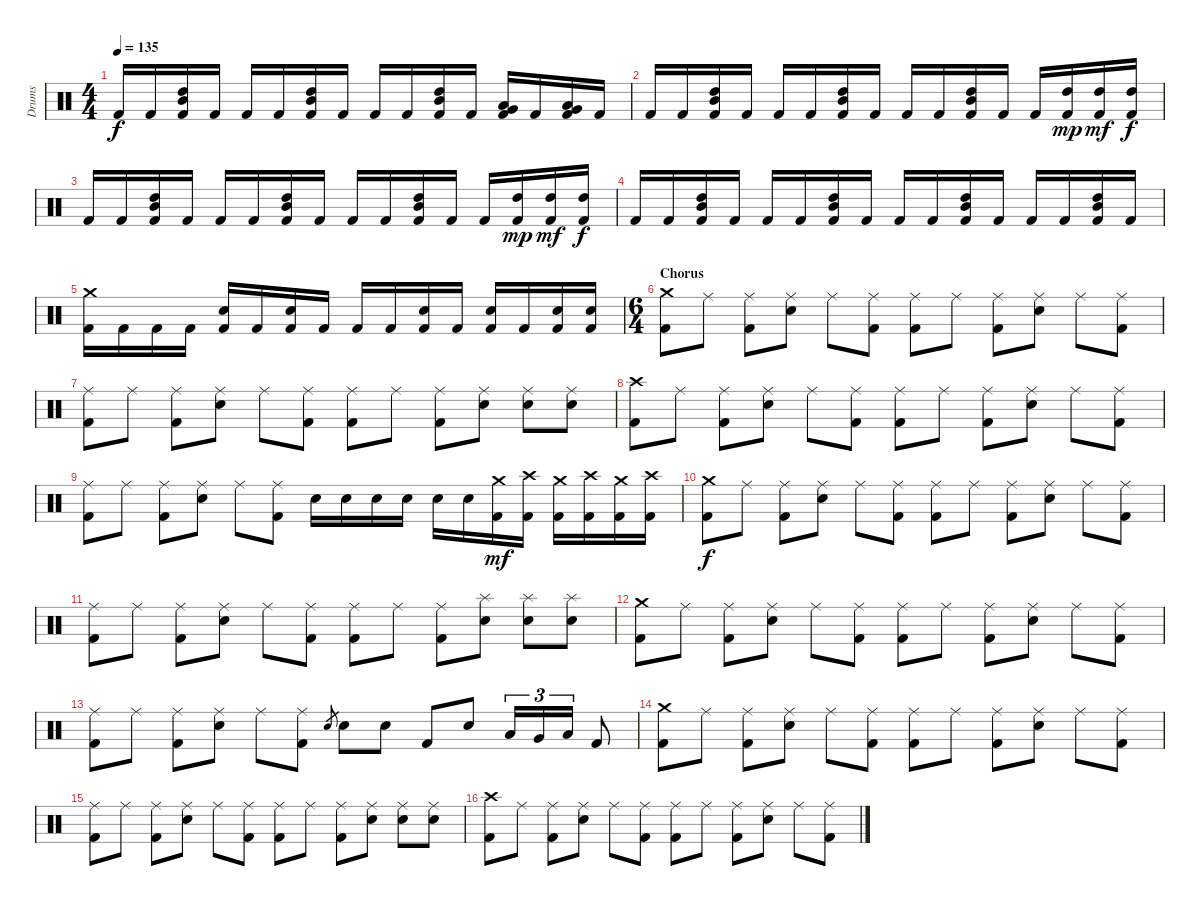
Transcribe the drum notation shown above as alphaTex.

\track ("Drums" "Drums") {instrument percussion}
\staff {score}
\articulation defaults
\ts (4 4)
\tempo 135
\clef neutral
\ks c "Kick (hit) 2".16{dy f} "Kick (hit) 2".16
("High Tom (hit)" "Mid Tom (hit)" "Kick (hit) 2").16 "Kick (hit) 2".16 "Kick (hit) 2".16 "Kick (hit) 2".16 ("High Tom (hit)" "Mid Tom (hit)" "Kick (hit) 2").16 "Kick (hit) 2".16 "Kick (hit) 2".16 "Kick (hit) 2".16 ("High Tom (hit)" "Mid Tom (hit)" "Kick (hit) 2").16 "Kick (hit) 2".16 ("Low Tom (hit)" "Very Low Tom (hit)" "Kick (hit) 2").16 "Kick (hit) 2".16 ("Very Low Tom (hit)" "Low Floor Tom (hit)" "Kick (hit) 2").16 "Kick (hit) 2".16 |
"Kick (hit) 2".16 "Kick (hit) 2".16 ("High Tom (hit)" "Mid Tom (hit)" "Kick (hit) 2").16 "Kick (hit) 2".16 "Kick (hit) 2".16 "Kick (hit) 2".16 ("High Tom (hit)" "Mid Tom (hit)" "Kick (hit) 2").16 "Kick (hit) 2".16 "Kick (hit) 2".16 "Kick (hit) 2".16 ("High Tom (hit)" "Mid Tom (hit)" "Kick (hit) 2").16 "Kick (hit) 2".16 "Kick (hit) 2".16 ("High Tom (hit)" "Kick (hit) 2").16{dy mp} ("High Tom (hit)" "Kick (hit) 2").16{dy mf} ("High Tom (hit)" "Kick (hit) 2").16{dy f} |
"Kick (hit) 2".16 "Kick (hit) 2".16 ("High Tom (hit)" "Mid Tom (hit)" "Kick (hit) 2").16 "Kick (hit) 2".16 "Kick (hit) 2".16 "Kick (hit) 2".16 ("High Tom (hit)" "Mid Tom (hit)" "Kick (hit) 2").16 "Kick (hit) 2".16 "Kick (hit) 2".16 "Kick (hit) 2".16 ("High Tom (hit)" "Mid Tom (hit)" "Kick (hit) 2").16 "Kick (hit) 2".16 "Kick (hit) 2".16 ("High Tom (hit)" "Kick (hit) 2").16{dy mp} ("High Tom (hit)" "Kick (hit) 2").16{dy mf} ("High Tom (hit)" "Kick (hit) 2").16{dy f} |
"Kick (hit) 2".16 "Kick (hit) 2".16 ("High Tom (hit)" "Mid Tom (hit)" "Kick (hit) 2").16 "Kick (hit) 2".16 "Kick (hit) 2".16 "Kick (hit) 2".16 ("High Tom (hit)" "Mid Tom (hit)" "Kick (hit) 2").16 "Kick (hit) 2".16 "Kick (hit) 2".16 "Kick (hit) 2".16 ("High Tom (hit)" "Mid Tom (hit)" "Kick (hit) 2").16 "Kick (hit) 2".16 "Kick (hit) 2".16 "Kick (hit) 2".16 ("High Tom (hit)" "Mid Tom (hit)" "Kick (hit) 2").16 "Kick (hit) 2".16 |
("Crash medium (hit)" "Kick (hit) 2").16 "Kick (hit) 2".16 "Kick (hit) 2".16 "Kick (hit) 2".16 ("Snare (hit) 2" "Kick (hit) 2").16 "Kick (hit) 2".16 ("Snare (hit) 2" "Kick (hit) 2").16 "Kick (hit) 2".16 "Kick (hit) 2".16 "Kick (hit) 2".16 ("Snare (hit) 2" "Kick (hit) 2").16 "Kick (hit) 2".16 ("Snare (hit) 2" "Kick (hit) 2").16 "Kick (hit) 2".16 ("Snare (hit) 2" "Kick (hit) 2").16 ("Snare (hit) 2" "Kick (hit) 2").16 |
\ts (6 4)
\section ("" "Chorus")
("Crash medium (hit)" "Kick (hit) 2").8 "Ride (middle)".8 ("Ride (middle)" "Kick (hit) 2").8 ("Ride (middle)" "Snare (hit) 2").8 "Ride (middle)".8 ("Ride (middle)" "Kick (hit) 2").8 ("Ride (middle)" "Kick (hit) 2").8 "Ride (middle)".8 ("Ride (middle)" "Kick (hit) 2").8 ("Ride (middle)" "Snare (hit) 2").8 "Ride (middle)".8 ("Ride (middle)" "Kick (hit) 2").8 |
("Ride (middle)" "Kick (hit) 2").8 "Ride (middle)".8 ("Ride (middle)" "Kick (hit) 2").8 ("Ride (middle)" "Snare (hit) 2").8 "Ride (middle)".8 ("Ride (middle)" "Kick (hit) 2").8 ("Ride (middle)" "Kick (hit) 2").8 "Ride (middle)".8 ("Ride (middle)" "Kick (hit) 2").8 ("Ride (middle)" "Snare (hit) 2").8 ("Ride (middle)" "Snare (hit) 2").8 ("Ride (middle)" "Snare (hit) 2").8 |
("Crash high (hit)" "Kick (hit) 2").8 "Ride (middle)".8 ("Ride (middle)" "Kick (hit) 2").8 ("Ride (middle)" "Snare (hit) 2").8 "Ride (middle)".8 ("Ride (middle)" "Kick (hit) 2").8 ("Ride (middle)" "Kick (hit) 2").8 "Ride (middle)".8 ("Ride (middle)" "Kick (hit) 2").8 ("Ride (middle)" "Snare (hit) 2").8 "Ride (middle)".8 ("Ride (middle)" "Kick (hit) 2").8 |
("Ride (middle)" "Kick (hit) 2").8 "Ride (middle)".8 ("Ride (middle)" "Kick (hit) 2").8 ("Ride (middle)" "Snare (hit) 2").8 "Ride (middle)".8 ("Ride (middle)" "Kick (hit) 2").8 "Snare (hit) 2".16 "Snare (hit) 2".16 "Snare (hit) 2".16 "Snare (hit) 2".16 "Snare (hit) 2".16 "Snare (hit) 2".16 ("Crash medium (hit)" "Kick (hit) 2").16{dy mf} ("Crash high (hit)" "Kick (hit) 2").16 ("Crash medium (hit)" "Kick (hit) 2").16 ("Crash high (hit)" "Kick (hit) 2").16 ("Crash medium (hit)" "Kick (hit) 2").16 ("Crash high (hit)" "Kick (hit) 2").16 |
("Crash medium (hit)" "Kick (hit) 2").8{dy f} "Ride (middle)".8 ("Ride (middle)" "Kick (hit) 2").8 ("Ride (middle)" "Snare (hit) 2").8 "Ride (middle)".8 ("Ride (middle)" "Kick (hit) 2").8 ("Ride (middle)" "Kick (hit) 2").8 "Ride (middle)".8 ("Ride (middle)" "Kick (hit) 2").8 ("Ride (middle)" "Snare (hit) 2").8 "Ride (middle)".8 ("Ride (middle)" "Kick (hit) 2").8 |
("Ride (middle)" "Kick (hit) 2").8 "Ride (middle)".8 ("Ride (middle)" "Kick (hit) 2").8 ("Ride (middle)" "Snare (hit) 2").8 "Ride (middle)".8 ("Ride (middle)" "Kick (hit) 2").8 ("Ride (middle)" "Kick (hit) 2").8 "Ride (middle)".8 ("Ride (middle)" "Kick (hit) 2").8 ("Splash (hit)" "Snare (hit) 2").8 ("Splash (hit)" "Snare (hit) 2").8 ("Splash (hit)" "Snare (hit) 2").8 |
("Crash medium (hit)" "Kick (hit) 2").8 "Ride (middle)".8 ("Ride (middle)" "Kick (hit) 2").8 ("Ride (middle)" "Snare (hit) 2").8 "Ride (middle)".8 ("Ride (middle)" "Kick (hit) 2").8 ("Ride (middle)" "Kick (hit) 2").8 "Ride (middle)".8 ("Ride (middle)" "Kick (hit) 2").8 ("Ride (middle)" "Snare (hit) 2").8 "Ride (middle)".8 ("Ride (middle)" "Kick (hit) 2").8 |
("Ride (middle)" "Kick (hit) 2").8 "Ride (middle)".8 ("Ride (middle)" "Kick (hit) 2").8 ("Ride (middle)" "Snare (hit) 2").8 "Ride (middle)".8 ("Ride (middle)" "Kick (hit) 2").8 "Snare (hit) 2".8{gr} "Snare (hit) 2".8 "Snare (hit) 2".8 "Kick (hit) 2".8 "Snare (hit) 2".8 "Low Tom (hit)".16{tu (3 2)} "Very Low Tom (hit)".16{tu (3 2)} "Low Floor Tom (hit)".16{tu (3 2)} "Kick (hit) 2".8 |
("Crash medium (hit)" "Kick (hit) 2").8 "Ride (middle)".8 ("Ride (middle)" "Kick (hit) 2").8 ("Ride (middle)" "Snare (hit) 2").8 "Ride (middle)".8 ("Ride (middle)" "Kick (hit) 2").8 ("Ride (middle)" "Kick (hit) 2").8 "Ride (middle)".8 ("Ride (middle)" "Kick (hit) 2").8 ("Ride (middle)" "Snare (hit) 2").8 "Ride (middle)".8 ("Ride (middle)" "Kick (hit) 2").8 |
("Ride (middle)" "Kick (hit) 2").8 "Ride (middle)".8 ("Ride (middle)" "Kick (hit) 2").8 ("Ride (middle)" "Snare (hit) 2").8 "Ride (middle)".8 ("Ride (middle)" "Kick (hit) 2").8 ("Ride (middle)" "Kick (hit) 2").8 "Ride (middle)".8 ("Ride (middle)" "Kick (hit) 2").8 ("Ride (middle)" "Snare (hit) 2").8 ("Ride (middle)" "Snare (hit) 2").8 ("Ride (middle)" "Snare (hit) 2").8 |
("Crash high (hit)" "Kick (hit) 2").8 "Ride (middle)".8 ("Ride (middle)" "Kick (hit) 2").8 ("Ride (middle)" "Snare (hit) 2").8 "Ride (middle)".8 ("Ride (middle)" "Kick (hit) 2").8 ("Ride (middle)" "Kick (hit) 2").8 "Ride (middle)".8 ("Ride (middle)" "Kick (hit) 2").8 ("Ride (middle)" "Snare (hit) 2").8 "Ride (middle)".8 ("Ride (middle)" "Kick (hit) 2").8
